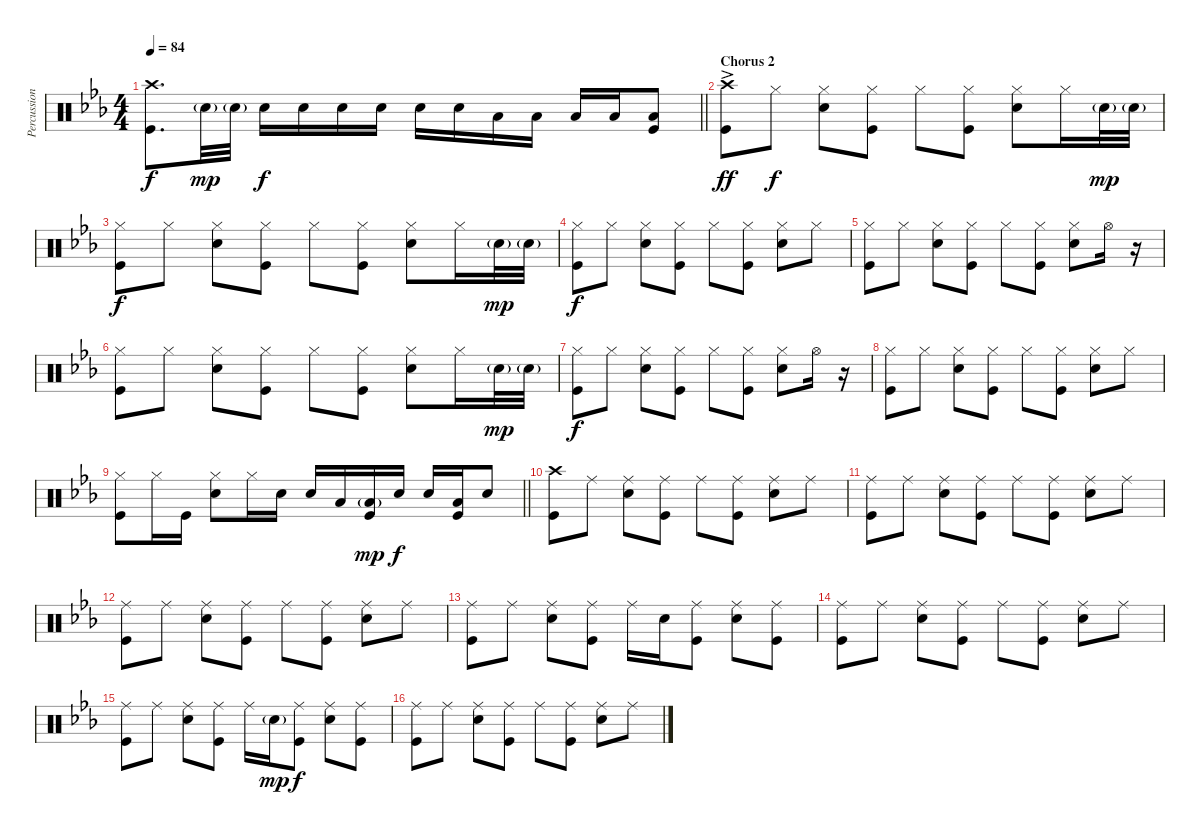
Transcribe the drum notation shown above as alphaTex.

\track ("Percussion" "Percussion") {instrument percussion}
\staff {score}
\articulation defaults
\ts (4 4)
\tempo 84
\clef neutral
\barLineRight lightlight
\ks eb
("Crash high (hit)" "Kick (hit)").8{d dy f} "Snare (hit) 2"{g}.32{dy mp} "Snare (hit) 2"{g}.32 "Snare (hit) 2".16{dy f} "Snare (hit) 2".16 "Snare (hit) 2".16 "Snare (hit) 2".16 "Snare (hit) 2".16 "Snare (hit) 2".16 "Low Tom (hit)".16 "Low Tom (hit)".16 "Low Tom (hit)".16 "Low Tom (hit)".16 ("Low Tom (hit)" "Kick (hit)").8 |
\section ("" "Chorus 2")
("Crash high (hit)" "Kick (hit)"{ac}).8{dy ff} "Hi-Hat (closed)".8{dy f} ("Hi-Hat (closed)" "Snare (hit) 2").8 ("Hi-Hat (closed)" "Kick (hit)").8 "Hi-Hat (closed)".8 ("Hi-Hat (closed)" "Kick (hit)").8 ("Hi-Hat (closed)" "Snare (hit) 2").8 "Hi-Hat (closed)".16 "Snare (hit) 2"{g}.32{dy mp} "Snare (hit) 2"{g}.32 |
("Hi-Hat (closed)" "Kick (hit)").8{dy f} "Hi-Hat (closed)".8 ("Hi-Hat (closed)" "Snare (hit) 2").8 ("Hi-Hat (closed)" "Kick (hit)").8 "Hi-Hat (closed)".8 ("Hi-Hat (closed)" "Kick (hit)").8 ("Hi-Hat (closed)" "Snare (hit) 2").8 "Hi-Hat (closed)".16 "Snare (hit) 2"{g}.32{dy mp} "Snare (hit) 2"{g}.32 |
("Hi-Hat (closed)" "Kick (hit)").8{dy f} "Hi-Hat (closed)".8 ("Hi-Hat (closed)" "Snare (hit) 2").8 ("Hi-Hat (closed)" "Kick (hit)").8 "Hi-Hat (closed)".8 ("Hi-Hat (closed)" "Kick (hit)").8 ("Hi-Hat (closed)" "Snare (hit) 2").8 "Hi-Hat (closed)".8 |
("Hi-Hat (closed)" "Kick (hit)").8 "Hi-Hat (closed)".8 ("Hi-Hat (closed)" "Snare (hit) 2").8 ("Hi-Hat (closed)" "Kick (hit)").8 "Hi-Hat (closed)".8 ("Hi-Hat (closed)" "Kick (hit)").8 ("Hi-Hat (closed)" "Snare (hit) 2").8 "Hi-Hat (open)".16 r.16 |
("Hi-Hat (closed)" "Kick (hit)").8 "Hi-Hat (closed)".8 ("Hi-Hat (closed)" "Snare (hit) 2").8 ("Hi-Hat (closed)" "Kick (hit)").8 "Hi-Hat (closed)".8 ("Hi-Hat (closed)" "Kick (hit)").8 ("Hi-Hat (closed)" "Snare (hit) 2").8 "Hi-Hat (closed)".16 "Snare (hit) 2"{g}.32{dy mp} "Snare (hit) 2"{g}.32 |
("Hi-Hat (closed)" "Kick (hit)").8{dy f} "Hi-Hat (closed)".8 ("Hi-Hat (closed)" "Snare (hit) 2").8 ("Hi-Hat (closed)" "Kick (hit)").8 "Hi-Hat (closed)".8 ("Hi-Hat (closed)" "Kick (hit)").8 ("Hi-Hat (closed)" "Snare (hit) 2").8 "Hi-Hat (open)".16 r.16 |
("Hi-Hat (closed)" "Kick (hit)").8 "Hi-Hat (closed)".8 ("Hi-Hat (closed)" "Snare (hit) 2").8 ("Hi-Hat (closed)" "Kick (hit)").8 "Hi-Hat (closed)".8 ("Hi-Hat (closed)" "Kick (hit)").8 ("Hi-Hat (closed)" "Snare (hit) 2").8 "Hi-Hat (closed)".8 |
\barLineRight lightlight
("Hi-Hat (closed)" "Kick (hit)").8 "Hi-Hat (closed)".16 "Kick (hit)".16 ("Hi-Hat (closed)" "Snare (hit) 2").8 "Hi-Hat (closed)".16 "Snare (hit) 2".16 "Snare (hit) 2".16 "Low Tom (hit)".16 ("Low Tom (hit)"{g} "Kick (hit)").16{dy mp} "Snare (hit) 2".16{dy f} "Snare (hit) 2".16 ("Low Tom (hit)" "Kick (hit)").16 "Snare (hit) 2".8 |
("Crash high (hit)" "Kick (hit)").8 "Ride (middle)".8 ("Ride (middle)" "Snare (hit) 2").8 ("Ride (middle)" "Kick (hit)").8 "Ride (middle)".8 ("Ride (middle)" "Kick (hit)").8 ("Ride (middle)" "Snare (hit) 2").8 "Ride (middle)".8 |
("Ride (middle)" "Kick (hit)").8 "Ride (middle)".8 ("Ride (middle)" "Snare (hit) 2").8 ("Ride (middle)" "Kick (hit)").8 "Ride (middle)".8 ("Ride (middle)" "Kick (hit)").8 ("Ride (middle)" "Snare (hit) 2").8 "Ride (middle)".8 |
("Ride (middle)" "Kick (hit)").8 "Ride (middle)".8 ("Ride (middle)" "Snare (hit) 2").8 ("Ride (middle)" "Kick (hit)").8 "Ride (middle)".8 ("Ride (middle)" "Kick (hit)").8 ("Ride (middle)" "Snare (hit) 2").8 "Ride (middle)".8 |
("Ride (middle)" "Kick (hit)").8 "Ride (middle)".8 ("Ride (middle)" "Snare (hit) 2").8 ("Ride (middle)" "Kick (hit)").8 "Ride (middle)".16 "Snare (hit) 2".16 ("Ride (middle)" "Kick (hit)").8 ("Ride (middle)" "Snare (hit) 2").8 ("Ride (middle)" "Kick (hit)").8 |
("Ride (middle)" "Kick (hit)").8 "Ride (middle)".8 ("Ride (middle)" "Snare (hit) 2").8 ("Ride (middle)" "Kick (hit)").8 "Ride (middle)".8 ("Ride (middle)" "Kick (hit)").8 ("Ride (middle)" "Snare (hit) 2").8 "Ride (middle)".8 |
("Ride (middle)" "Kick (hit)").8 "Ride (middle)".8 ("Ride (middle)" "Snare (hit) 2").8 ("Ride (middle)" "Kick (hit)").8 "Ride (middle)".16 "Snare (hit) 2"{g}.16{dy mp} ("Ride (middle)" "Kick (hit)").8{dy f} ("Ride (middle)" "Snare (hit) 2").8 ("Ride (middle)" "Kick (hit)").8 |
("Ride (middle)" "Kick (hit)").8 "Ride (middle)".8 ("Ride (middle)" "Snare (hit) 2").8 ("Ride (middle)" "Kick (hit)").8 "Ride (middle)".8 ("Ride (middle)" "Kick (hit)").8 ("Ride (middle)" "Snare (hit) 2").8 "Ride (middle)".8
